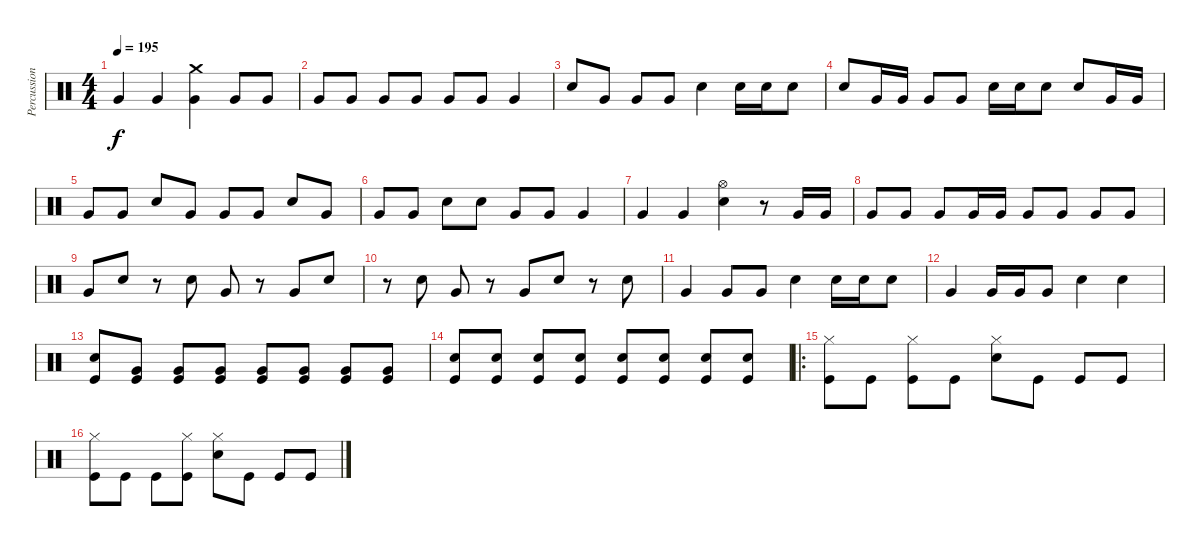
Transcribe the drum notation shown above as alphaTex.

\track ("Percussion" "Percussion") {instrument percussion}
\staff {score}
\articulation defaults
\ts (4 4)
\tempo 195
\clef neutral
\ks c "Very Low Tom (hit)".4{dy f} "Very Low Tom (hit)".4
("Crash medium (hit)" "Very Low Tom (hit)").4 "Very Low Tom (hit)".8 "Very Low Tom (hit)".8 |
"Very Low Tom (hit)".8 "Very Low Tom (hit)".8 "Very Low Tom (hit)".8 "Very Low Tom (hit)".8 "Very Low Tom (hit)".8 "Very Low Tom (hit)".8 "Very Low Tom (hit)".4 |
"Snare (hit) 2".8 "Very Low Tom (hit)".8 "Very Low Tom (hit)".8 "Very Low Tom (hit)".8 "Snare (hit) 2".4 "Snare (hit) 2".16 "Snare (hit) 2".16 "Snare (hit) 2".8 |
"Snare (hit) 2".8 "Very Low Tom (hit)".16 "Very Low Tom (hit)".16 "Very Low Tom (hit)".8 "Very Low Tom (hit)".8 "Snare (hit) 2".16 "Snare (hit) 2".16 "Snare (hit) 2".8 "Snare (hit) 2".8 "Very Low Tom (hit)".16 "Very Low Tom (hit)".16 |
"Very Low Tom (hit)".8 "Very Low Tom (hit)".8 "Snare (hit) 2".8 "Very Low Tom (hit)".8 "Very Low Tom (hit)".8 "Very Low Tom (hit)".8 "Snare (hit) 2".8 "Very Low Tom (hit)".8 |
"Very Low Tom (hit)".8 "Very Low Tom (hit)".8 "Snare (hit) 2".8 "Snare (hit) 2".8 "Very Low Tom (hit)".8 "Very Low Tom (hit)".8 "Very Low Tom (hit)".4 |
"Very Low Tom (hit)".4 "Very Low Tom (hit)".4 ("Hi-Hat (open)" "Snare (hit) 2").4 r.8 "Very Low Tom (hit)".16 "Very Low Tom (hit)".16 |
"Very Low Tom (hit)".8 "Very Low Tom (hit)".8 "Very Low Tom (hit)".8 "Very Low Tom (hit)".16 "Very Low Tom (hit)".16 "Very Low Tom (hit)".8 "Very Low Tom (hit)".8 "Very Low Tom (hit)".8 "Very Low Tom (hit)".8 |
"Very Low Tom (hit)".8 "Snare (hit) 2".8 r.8 "Snare (hit) 2".8 "Very Low Tom (hit)".8 r.8 "Very Low Tom (hit)".8 "Snare (hit) 2".8 |
r.8 "Snare (hit) 2".8 "Very Low Tom (hit)".8 r.8 "Very Low Tom (hit)".8 "Snare (hit) 2".8 r.8 "Snare (hit) 2".8 |
"Very Low Tom (hit)".4 "Very Low Tom (hit)".8 "Very Low Tom (hit)".8 "Snare (hit) 2".4 "Snare (hit) 2".16 "Snare (hit) 2".16 "Snare (hit) 2".8 |
"Very Low Tom (hit)".4 "Very Low Tom (hit)".16 "Very Low Tom (hit)".16 "Very Low Tom (hit)".8 "Snare (hit) 2".4 "Snare (hit) 2".4 |
("Snare (hit) 2" "Kick (hit)").8 ("Very Low Tom (hit)" "Kick (hit)").8 ("Very Low Tom (hit)" "Kick (hit)").8 ("Very Low Tom (hit)" "Kick (hit)").8 ("Very Low Tom (hit)" "Kick (hit)").8 ("Very Low Tom (hit)" "Kick (hit)").8 ("Very Low Tom (hit)" "Kick (hit)").8 ("Very Low Tom (hit)" "Kick (hit)").8 |
("Snare (hit) 2" "Kick (hit)").8 ("Snare (hit) 2" "Kick (hit)").8 ("Snare (hit) 2" "Kick (hit)").8 ("Snare (hit) 2" "Kick (hit)").8 ("Snare (hit) 2" "Kick (hit)").8 ("Snare (hit) 2" "Kick (hit)").8 ("Snare (hit) 2" "Kick (hit)").8 ("Snare (hit) 2" "Kick (hit)").8 |
\ro
("Hi-Hat (closed)" "Kick (hit)").8 "Kick (hit)".8 ("Hi-Hat (closed)" "Kick (hit)").8 "Kick (hit)".8 ("Hi-Hat (closed)" "Snare (hit) 2").8 "Kick (hit)".8 "Kick (hit)".8 "Kick (hit)".8 |
("Hi-Hat (closed)" "Kick (hit)").8 "Kick (hit)".8 "Kick (hit)".8 ("Hi-Hat (closed)" "Kick (hit)").8 ("Hi-Hat (closed)" "Snare (hit) 2").8 "Kick (hit)".8 "Kick (hit)".8 "Kick (hit)".8
